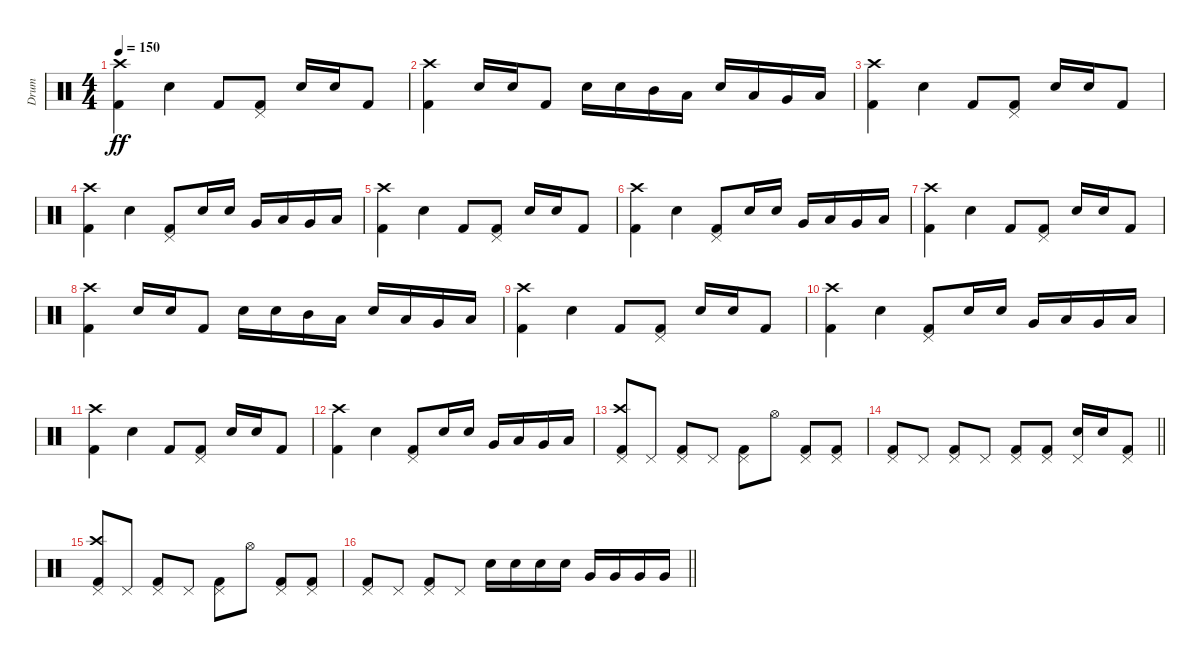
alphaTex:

\track ("Drum" "Drum") {instrument percussion}
\staff {score}
\articulation defaults
\ts (4 4)
\tempo 150
\clef neutral
\ks c
("Kick (hit) 2" "Crash high (hit)").4{dy ff} "Electric Snare (hit)".4 "Kick (hit) 2".8 ("Kick (hit) 2" "Pedal Hi-Hat (hit)").8 "Electric Snare (hit)".16 "Snare (hit) 2".16 "Kick (hit) 2".8 |
("Kick (hit) 2" "Crash high (hit)").4 "Electric Snare (hit)".16 "Electric Snare (hit)".16 "Kick (hit) 2".8 "Electric Snare (hit)".16 "Electric Snare (hit)".16 "Mid Tom (hit)".16 "Low Tom (hit)".16 "Electric Snare (hit)".16 "Low Tom (hit)".16 "Very Low Tom (hit)".16 "Low Floor Tom (hit)".16 |
("Kick (hit) 2" "Crash high (hit)").4 "Electric Snare (hit)".4 "Kick (hit) 2".8 ("Kick (hit) 2" "Pedal Hi-Hat (hit)").8 "Electric Snare (hit)".16 "Snare (hit) 2".16 "Kick (hit) 2".8 |
("Kick (hit) 2" "Crash high (hit)").4 "Electric Snare (hit)".4 ("Kick (hit) 2" "Pedal Hi-Hat (hit)").8 "Electric Snare (hit)".16 "Snare (hit) 2".16 "Very Low Tom (hit)".16 "Low Tom (hit)".16 "Very Low Tom (hit)".16 "Low Floor Tom (hit)".16 |
("Kick (hit) 2" "Crash high (hit)").4 "Electric Snare (hit)".4 "Kick (hit) 2".8 ("Kick (hit) 2" "Pedal Hi-Hat (hit)").8 "Electric Snare (hit)".16 "Snare (hit) 2".16 "Kick (hit) 2".8 |
("Kick (hit) 2" "Crash high (hit)").4 "Electric Snare (hit)".4 ("Kick (hit) 2" "Pedal Hi-Hat (hit)").8 "Electric Snare (hit)".16 "Snare (hit) 2".16 "Very Low Tom (hit)".16 "Low Tom (hit)".16 "Very Low Tom (hit)".16 "Low Floor Tom (hit)".16 |
("Kick (hit) 2" "Crash high (hit)").4 "Electric Snare (hit)".4 "Kick (hit) 2".8 ("Kick (hit) 2" "Pedal Hi-Hat (hit)").8 "Electric Snare (hit)".16 "Snare (hit) 2".16 "Kick (hit) 2".8 |
("Kick (hit) 2" "Crash high (hit)").4 "Electric Snare (hit)".16 "Electric Snare (hit)".16 "Kick (hit) 2".8 "Electric Snare (hit)".16 "Electric Snare (hit)".16 "Mid Tom (hit)".16 "Low Tom (hit)".16 "Electric Snare (hit)".16 "Low Tom (hit)".16 "Very Low Tom (hit)".16 "Low Floor Tom (hit)".16 |
("Kick (hit) 2" "Crash high (hit)").4 "Electric Snare (hit)".4 "Kick (hit) 2".8 ("Kick (hit) 2" "Pedal Hi-Hat (hit)").8 "Electric Snare (hit)".16 "Snare (hit) 2".16 "Kick (hit) 2".8 |
("Kick (hit) 2" "Crash high (hit)").4 "Electric Snare (hit)".4 ("Kick (hit) 2" "Pedal Hi-Hat (hit)").8 "Electric Snare (hit)".16 "Snare (hit) 2".16 "Very Low Tom (hit)".16 "Low Tom (hit)".16 "Very Low Tom (hit)".16 "Low Floor Tom (hit)".16 |
("Kick (hit) 2" "Crash high (hit)").4 "Electric Snare (hit)".4 "Kick (hit) 2".8 ("Kick (hit) 2" "Pedal Hi-Hat (hit)").8 "Electric Snare (hit)".16 "Snare (hit) 2".16 "Kick (hit) 2".8 |
("Kick (hit) 2" "Crash high (hit)").4 "Electric Snare (hit)".4 ("Kick (hit) 2" "Pedal Hi-Hat (hit)").8 "Electric Snare (hit)".16 "Snare (hit) 2".16 "Very Low Tom (hit)".16 "Low Tom (hit)".16 "Very Low Tom (hit)".16 "Low Floor Tom (hit)".16 |
("Pedal Hi-Hat (hit)" "Kick (hit) 2" "Crash high (hit)").8 "Pedal Hi-Hat (hit)".8 ("Pedal Hi-Hat (hit)" "Kick (hit) 2").8 "Pedal Hi-Hat (hit)".8 ("Pedal Hi-Hat (hit)" "Kick (hit) 2").8 "Hi-Hat (open)".8 ("Pedal Hi-Hat (hit)" "Kick (hit) 2").8 ("Pedal Hi-Hat (hit)" "Kick (hit) 2").8 |
\barLineRight lightlight
("Pedal Hi-Hat (hit)" "Kick (hit) 2").8 "Pedal Hi-Hat (hit)".8 ("Pedal Hi-Hat (hit)" "Kick (hit) 2").8 "Pedal Hi-Hat (hit)".8 ("Pedal Hi-Hat (hit)" "Kick (hit) 2").8 ("Kick (hit) 2" "Pedal Hi-Hat (hit)").8 ("Electric Snare (hit)" "Pedal Hi-Hat (hit)").16 "Electric Snare (hit)".16 ("Kick (hit) 2" "Pedal Hi-Hat (hit)").8 |
("Pedal Hi-Hat (hit)" "Kick (hit) 2" "Crash high (hit)").8 "Pedal Hi-Hat (hit)".8 ("Pedal Hi-Hat (hit)" "Kick (hit) 2").8 "Pedal Hi-Hat (hit)".8 ("Pedal Hi-Hat (hit)" "Kick (hit) 2").8 "Hi-Hat (open)".8 ("Pedal Hi-Hat (hit)" "Kick (hit) 2").8 ("Pedal Hi-Hat (hit)" "Kick (hit) 2").8 |
\barLineRight lightlight
("Pedal Hi-Hat (hit)" "Kick (hit) 2").8 "Pedal Hi-Hat (hit)".8 ("Pedal Hi-Hat (hit)" "Kick (hit) 2").8 "Pedal Hi-Hat (hit)".8 "Electric Snare (hit)".16 "Electric Snare (hit)".16 "Electric Snare (hit)".16 "Electric Snare (hit)".16 "Very Low Tom (hit)".16 "Very Low Tom (hit)".16 "Very Low Tom (hit)".16 "Very Low Tom (hit)".16
